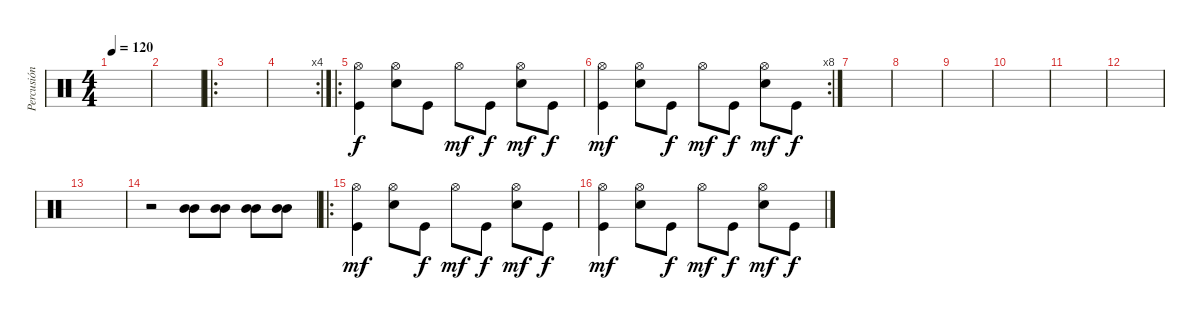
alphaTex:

\track ("Percusión" "Percusión") {instrument percussion}
\staff {score}
\articulation defaults
\ts (4 4)
\tempo 120
\clef neutral
\ks c
|
|
\ro
|
\rc 4
|
\ro
("Kick (hit)" "Hi-Hat (open)").4 ("Electric Snare (hit)" "Hi-Hat (open)").8 "Kick (hit)".8{dy f} "Hi-Hat (open)".8{dy mf} "Kick (hit)".8{dy f} ("Electric Snare (hit)" "Hi-Hat (open)").8{dy mf} "Kick (hit)".8{dy f} |
\rc 8
("Kick (hit)" "Hi-Hat (open)").4{dy mf} ("Electric Snare (hit)" "Hi-Hat (open)").8 "Kick (hit)".8{dy f} "Hi-Hat (open)".8{dy mf} "Kick (hit)".8{dy f} ("Electric Snare (hit)" "Hi-Hat (open)").8{dy mf} "Kick (hit)".8{dy f} |
|
|
|
|
|
|
|
r.2 ("Mid Tom (hit)" "Mid Tom (hit)").8 ("Mid Tom (hit)" "Mid Tom (hit)").8 ("Mid Tom (hit)" "Mid Tom (hit)").8 ("Mid Tom (hit)" "Mid Tom (hit)").8 |
\ro
("Kick (hit)" "Hi-Hat (open)").4{dy mf} ("Electric Snare (hit)" "Hi-Hat (open)").8 "Kick (hit)".8{dy f} "Hi-Hat (open)".8{dy mf} "Kick (hit)".8{dy f} ("Electric Snare (hit)" "Hi-Hat (open)").8{dy mf} "Kick (hit)".8{dy f} |
("Kick (hit)" "Hi-Hat (open)").4{dy mf} ("Electric Snare (hit)" "Hi-Hat (open)").8 "Kick (hit)".8{dy f} "Hi-Hat (open)".8{dy mf} "Kick (hit)".8{dy f} ("Electric Snare (hit)" "Hi-Hat (open)").8{dy mf} "Kick (hit)".8{dy f}
